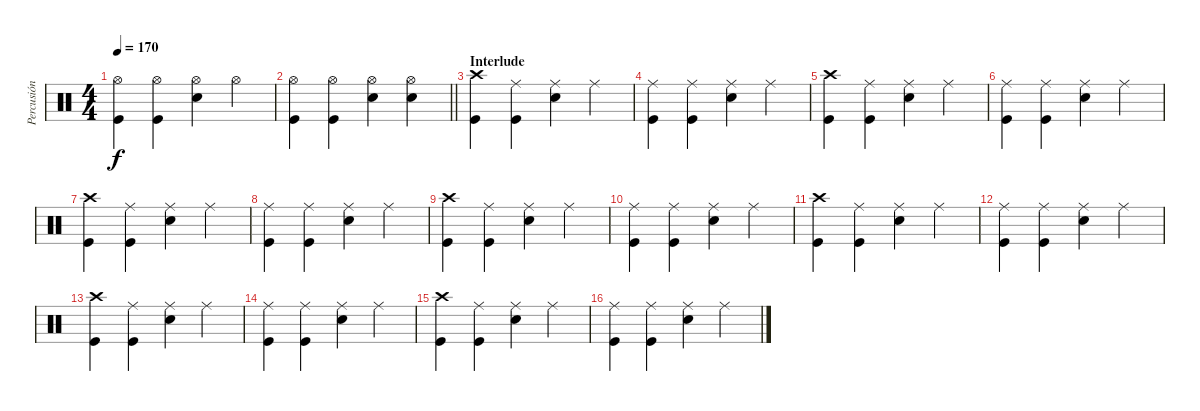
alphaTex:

\track ("Percusión" "Percusión") {instrument percussion}
\staff {score}
\articulation defaults
\ts (4 4)
\tempo 170
\clef neutral
\ks c
("Hi-Hat (open)" "Kick (hit)").4{dy f} ("Hi-Hat (open)" "Kick (hit)").4 ("Hi-Hat (open)" "Electric Snare (hit)").4 "Hi-Hat (open)".4 |
\barLineRight lightlight
("Hi-Hat (open)" "Kick (hit)").4 ("Hi-Hat (open)" "Kick (hit)").4 ("Hi-Hat (open)" "Electric Snare (hit)").4 ("Hi-Hat (open)" "Electric Snare (hit)").4 |
\section ("" "Interlude")
("Crash high (hit)" "Kick (hit)").4 ("Ride (middle)" "Kick (hit)").4 ("Ride (middle)" "Electric Snare (hit)").4 "Ride (middle)".4 |
("Ride (middle)" "Kick (hit)").4 ("Ride (middle)" "Kick (hit)").4 ("Ride (middle)" "Electric Snare (hit)").4 "Ride (middle)".4 |
("Crash high (hit)" "Kick (hit)").4 ("Ride (middle)" "Kick (hit)").4 ("Ride (middle)" "Electric Snare (hit)").4 "Ride (middle)".4 |
("Ride (middle)" "Kick (hit)").4 ("Ride (middle)" "Kick (hit)").4 ("Ride (middle)" "Electric Snare (hit)").4 "Ride (middle)".4 |
("Crash high (hit)" "Kick (hit)").4 ("Ride (middle)" "Kick (hit)").4 ("Ride (middle)" "Electric Snare (hit)").4 "Ride (middle)".4 |
("Ride (middle)" "Kick (hit)").4 ("Ride (middle)" "Kick (hit)").4 ("Ride (middle)" "Electric Snare (hit)").4 "Ride (middle)".4 |
("Crash high (hit)" "Kick (hit)").4 ("Ride (middle)" "Kick (hit)").4 ("Ride (middle)" "Electric Snare (hit)").4 "Ride (middle)".4 |
("Ride (middle)" "Kick (hit)").4 ("Ride (middle)" "Kick (hit)").4 ("Ride (middle)" "Electric Snare (hit)").4 "Ride (middle)".4 |
("Crash high (hit)" "Kick (hit)").4 ("Ride (middle)" "Kick (hit)").4 ("Ride (middle)" "Electric Snare (hit)").4 "Ride (middle)".4 |
("Ride (middle)" "Kick (hit)").4 ("Ride (middle)" "Kick (hit)").4 ("Ride (middle)" "Electric Snare (hit)").4 "Ride (middle)".4 |
("Crash high (hit)" "Kick (hit)").4 ("Ride (middle)" "Kick (hit)").4 ("Ride (middle)" "Electric Snare (hit)").4 "Ride (middle)".4 |
("Ride (middle)" "Kick (hit)").4 ("Ride (middle)" "Kick (hit)").4 ("Ride (middle)" "Electric Snare (hit)").4 "Ride (middle)".4 |
("Crash high (hit)" "Kick (hit)").4 ("Ride (middle)" "Kick (hit)").4 ("Ride (middle)" "Electric Snare (hit)").4 "Ride (middle)".4 |
("Ride (middle)" "Kick (hit)").4 ("Ride (middle)" "Kick (hit)").4 ("Ride (middle)" "Electric Snare (hit)").4 "Ride (middle)".4
